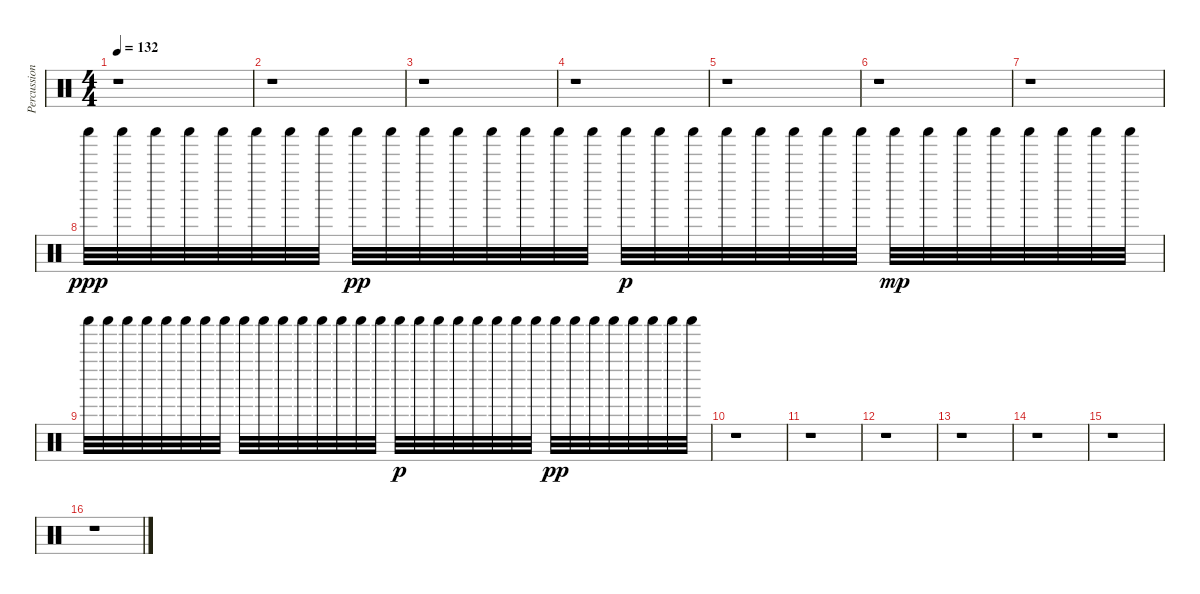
\track ("Percussion" "Percussion") {instrument percussion}
\staff {score}
\articulation defaults
\ts (4 4)
\tempo 132
\clef neutral
\ks c
r.1{dy pp} |
r.1 |
r.1 |
r.1 |
r.1 |
r.1 |
r.1 |
"Shaker (hit)".32{dy ppp} "Shaker (hit)".32 "Shaker (hit)".32 "Shaker (hit)".32 "Shaker (hit)".32 "Shaker (hit)".32 "Shaker (hit)".32 "Shaker (hit)".32 "Shaker (hit)".32{dy pp} "Shaker (hit)".32 "Shaker (hit)".32 "Shaker (hit)".32 "Shaker (hit)".32 "Shaker (hit)".32 "Shaker (hit)".32 "Shaker (hit)".32 "Shaker (hit)".32{dy p} "Shaker (hit)".32 "Shaker (hit)".32 "Shaker (hit)".32 "Shaker (hit)".32 "Shaker (hit)".32 "Shaker (hit)".32 "Shaker (hit)".32 "Shaker (hit)".32{dy mp} "Shaker (hit)".32 "Shaker (hit)".32 "Shaker (hit)".32 "Shaker (hit)".32 "Shaker (hit)".32 "Shaker (hit)".32 "Shaker (hit)".32 |
"Shaker (hit)".32 "Shaker (hit)".32 "Shaker (hit)".32 "Shaker (hit)".32 "Shaker (hit)".32 "Shaker (hit)".32 "Shaker (hit)".32 "Shaker (hit)".32 "Shaker (hit)".32 "Shaker (hit)".32 "Shaker (hit)".32 "Shaker (hit)".32 "Shaker (hit)".32 "Shaker (hit)".32 "Shaker (hit)".32 "Shaker (hit)".32 "Shaker (hit)".32{dy p} "Shaker (hit)".32 "Shaker (hit)".32 "Shaker (hit)".32 "Shaker (hit)".32 "Shaker (hit)".32 "Shaker (hit)".32 "Shaker (hit)".32 "Shaker (hit)".32{dy pp} "Shaker (hit)".32 "Shaker (hit)".32 "Shaker (hit)".32 "Shaker (hit)".32 "Shaker (hit)".32 "Shaker (hit)".32 "Shaker (hit)".32 |
r.1 |
r.1 |
r.1 |
r.1 |
r.1 |
r.1 |
r.1
